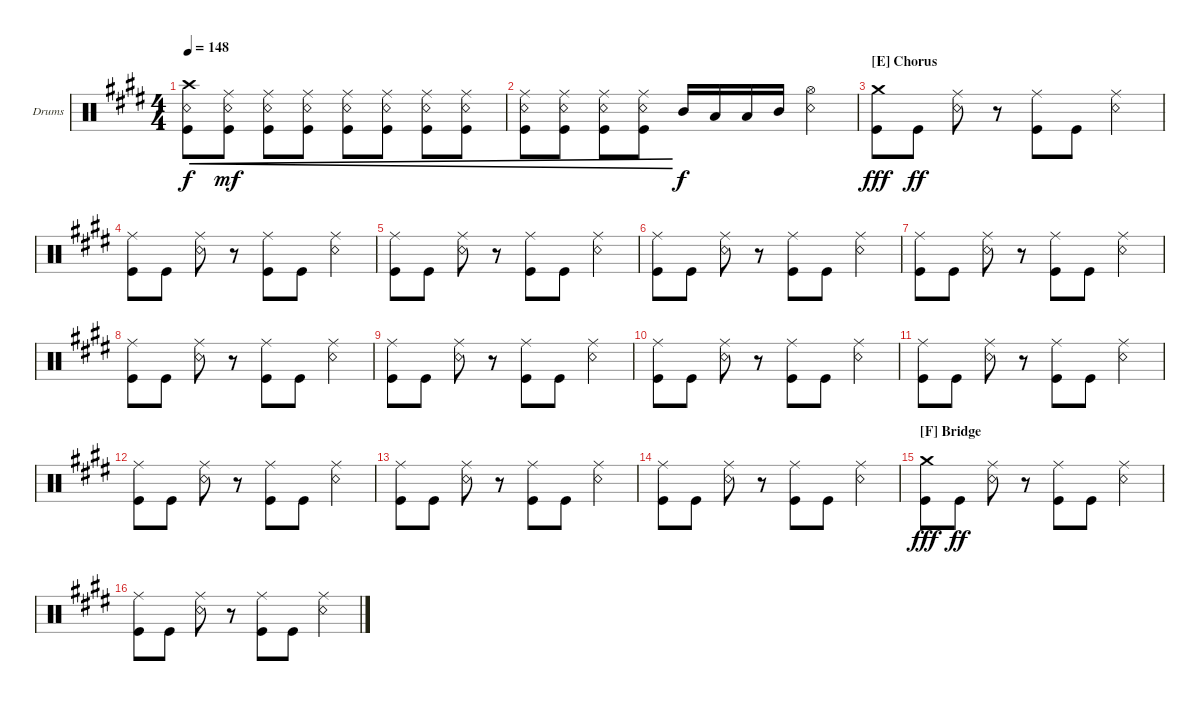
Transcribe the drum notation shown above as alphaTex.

\bracketExtendMode groupsimilarinstruments
\firstSystemTrackNameOrientation horizontal
\otherSystemsTrackNameOrientation horizontal
\track ("Drums" "Drums") {instrument percussion}
\staff {score}
\articulation defaults
\ts (4 4)
\tempo 148
\clef neutral
\ks e
("Snare (rim shot)" "Kick (hit)" "Crash high (hit)").8{cre dy f} ("Snare (rim shot)" "Kick (hit)" "Ride (middle)").8{cre dy mf} ("Snare (rim shot)" "Kick (hit)" "Ride (middle)").8{cre} ("Snare (rim shot)" "Kick (hit)" "Ride (middle)").8{cre} ("Snare (rim shot)" "Kick (hit)" "Ride (middle)").8{cre} ("Snare (rim shot)" "Kick (hit)" "Ride (middle)").8{cre} ("Snare (rim shot)" "Kick (hit)" "Ride (middle)").8{cre} ("Snare (rim shot)" "Kick (hit)" "Ride (middle)").8{cre} |
("Snare (rim shot)" "Kick (hit)" "Ride (middle)").8{cre} ("Snare (rim shot)" "Kick (hit)" "Ride (middle)").8{cre} ("Snare (rim shot)" "Kick (hit)" "Ride (middle)").8{cre} ("Snare (rim shot)" "Kick (hit)" "Ride (middle)").8{cre} "Mid Tom (hit)".16{dy f} "Low Tom (hit)".16 "Low Tom (hit)".16 "Mid Tom (hit)".16 ("Snare (rim shot)" "Hi-Hat (open)").4 |
\section ("E" "Chorus")
("Kick (hit)" "Crash medium (hit)").8{dy fff} "Kick (hit)".8{dy ff} ("Snare (rim shot)" "Ride (middle)").8 r.8 ("Kick (hit)" "Ride (middle)").8 "Kick (hit)".8 ("Snare (rim shot)" "Ride (middle)").4 |
("Kick (hit)" "Ride (middle)").8 "Kick (hit)".8 ("Snare (rim shot)" "Ride (middle)").8 r.8 ("Kick (hit)" "Ride (middle)").8 "Kick (hit)".8 ("Snare (rim shot)" "Ride (middle)").4 |
("Kick (hit)" "Ride (middle)").8 "Kick (hit)".8 ("Snare (rim shot)" "Ride (middle)").8 r.8 ("Kick (hit)" "Ride (middle)").8 "Kick (hit)".8 ("Snare (rim shot)" "Ride (middle)").4 |
("Kick (hit)" "Ride (middle)").8 "Kick (hit)".8 ("Snare (rim shot)" "Ride (middle)").8 r.8 ("Kick (hit)" "Ride (middle)").8 "Kick (hit)".8 ("Snare (rim shot)" "Ride (middle)").4 |
("Kick (hit)" "Ride (middle)").8 "Kick (hit)".8 ("Snare (rim shot)" "Ride (middle)").8 r.8 ("Kick (hit)" "Ride (middle)").8 "Kick (hit)".8 ("Snare (rim shot)" "Ride (middle)").4 |
("Kick (hit)" "Ride (middle)").8 "Kick (hit)".8 ("Snare (rim shot)" "Ride (middle)").8 r.8 ("Kick (hit)" "Ride (middle)").8 "Kick (hit)".8 ("Snare (rim shot)" "Ride (middle)").4 |
("Kick (hit)" "Ride (middle)").8 "Kick (hit)".8 ("Snare (rim shot)" "Ride (middle)").8 r.8 ("Kick (hit)" "Ride (middle)").8 "Kick (hit)".8 ("Snare (rim shot)" "Ride (middle)").4 |
("Kick (hit)" "Ride (middle)").8 "Kick (hit)".8 ("Snare (rim shot)" "Ride (middle)").8 r.8 ("Kick (hit)" "Ride (middle)").8 "Kick (hit)".8 ("Snare (rim shot)" "Ride (middle)").4 |
("Kick (hit)" "Ride (middle)").8 "Kick (hit)".8 ("Snare (rim shot)" "Ride (middle)").8 r.8 ("Kick (hit)" "Ride (middle)").8 "Kick (hit)".8 ("Snare (rim shot)" "Ride (middle)").4 |
("Kick (hit)" "Ride (middle)").8 "Kick (hit)".8 ("Snare (rim shot)" "Ride (middle)").8 r.8 ("Kick (hit)" "Ride (middle)").8 "Kick (hit)".8 ("Snare (rim shot)" "Ride (middle)").4 |
("Kick (hit)" "Ride (middle)").8 "Kick (hit)".8 ("Snare (rim shot)" "Ride (middle)").8 r.8 ("Kick (hit)" "Ride (middle)").8 "Kick (hit)".8 ("Snare (rim shot)" "Ride (middle)").4 |
("Kick (hit)" "Ride (middle)").8 "Kick (hit)".8 ("Snare (rim shot)" "Ride (middle)").8 r.8 ("Kick (hit)" "Ride (middle)").8 "Kick (hit)".8 ("Snare (rim shot)" "Ride (middle)").4 |
\section ("F" "Bridge")
("Kick (hit)" "Crash medium (hit)").8{dy fff} "Kick (hit)".8{dy ff} ("Snare (rim shot)" "Ride (middle)").8 r.8 ("Kick (hit)" "Ride (middle)").8 "Kick (hit)".8 ("Snare (rim shot)" "Ride (middle)").4 |
("Kick (hit)" "Ride (middle)").8 "Kick (hit)".8 ("Snare (rim shot)" "Ride (middle)").8 r.8 ("Kick (hit)" "Ride (middle)").8 "Kick (hit)".8 ("Snare (rim shot)" "Ride (middle)").4
